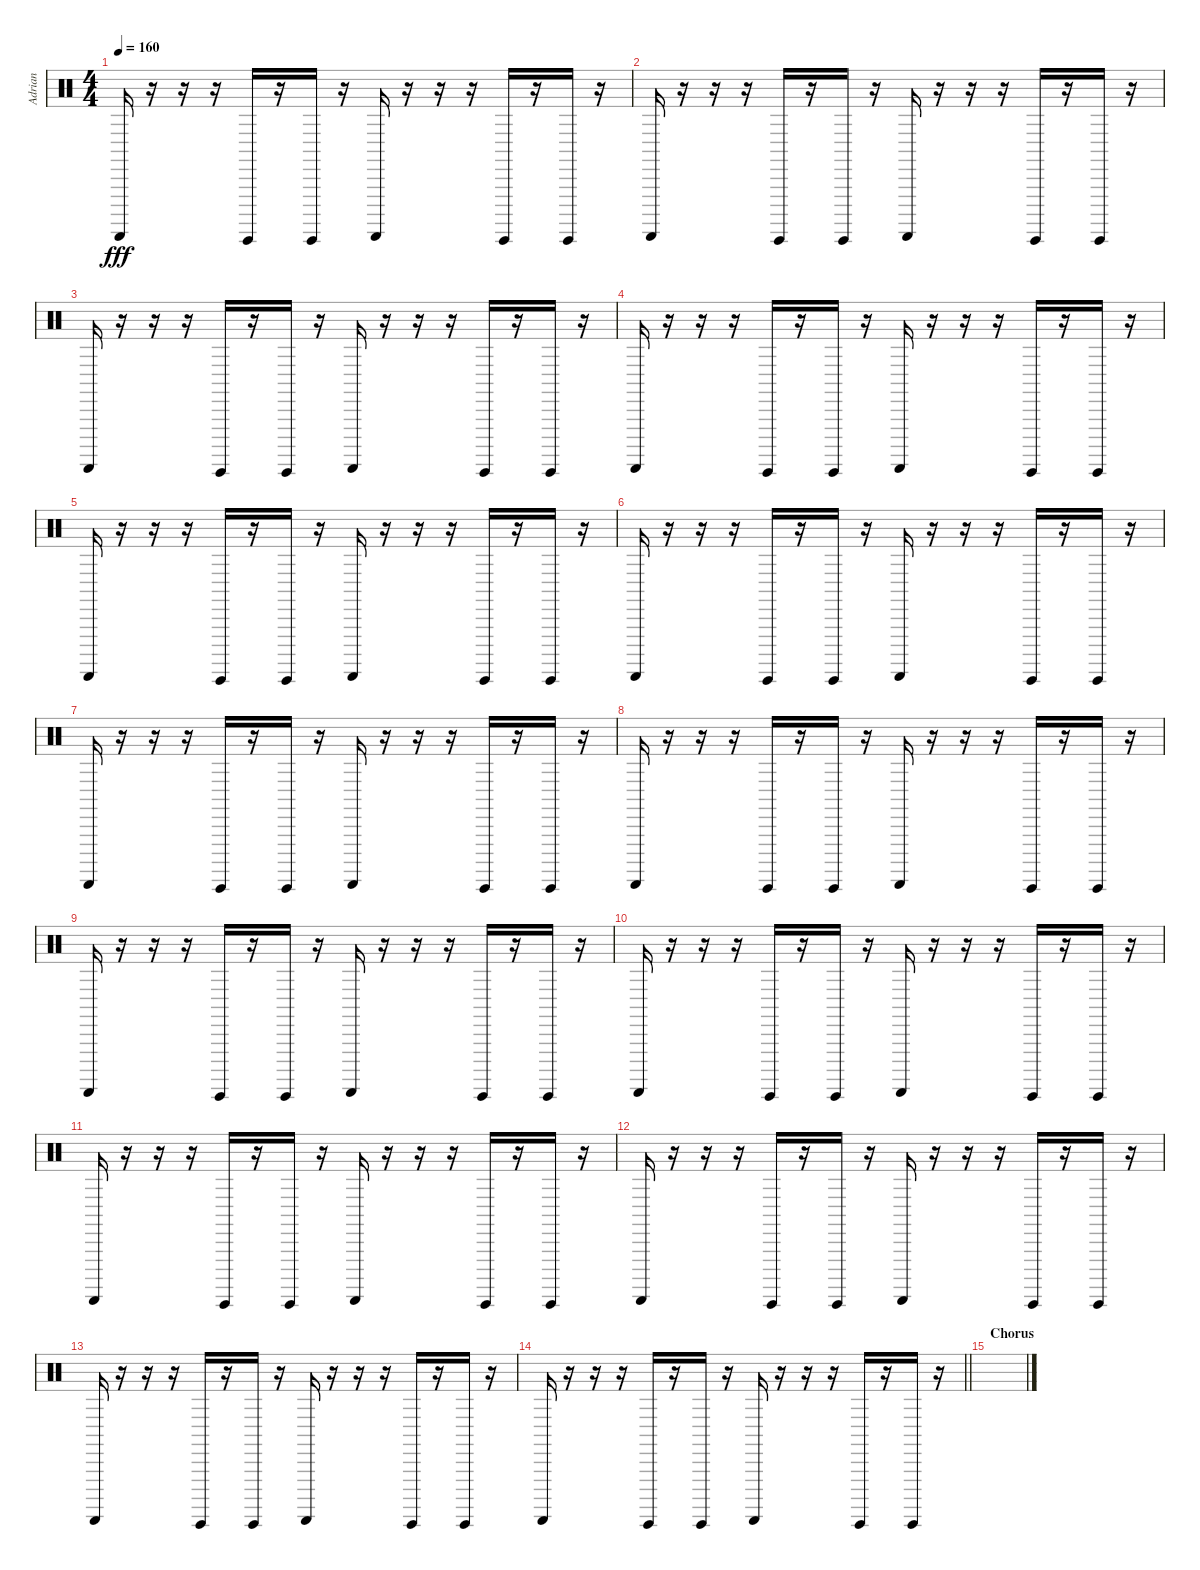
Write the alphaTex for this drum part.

\track ("Adrian" "Adrian") {instrument percussion}
\staff {score}
\articulation defaults
\ts (4 4)
\tempo 160
\clef neutral
\ks c "Guiro (scrap-return)".16{dy fff}
r.16 r.16 r.16 "Guiro (hit)".16 r.16 "Guiro (hit)".16 r.16 "Guiro (scrap-return)".16 r.16 r.16 r.16 "Guiro (hit)".16 r.16 "Guiro (hit)".16 r.16 |
"Guiro (scrap-return)".16 r.16 r.16 r.16 "Guiro (hit)".16 r.16 "Guiro (hit)".16 r.16 "Guiro (scrap-return)".16 r.16 r.16 r.16 "Guiro (hit)".16 r.16 "Guiro (hit)".16 r.16 |
"Guiro (scrap-return)".16 r.16 r.16 r.16 "Guiro (hit)".16 r.16 "Guiro (hit)".16 r.16 "Guiro (scrap-return)".16 r.16 r.16 r.16 "Guiro (hit)".16 r.16 "Guiro (hit)".16 r.16 |
"Guiro (scrap-return)".16 r.16 r.16 r.16 "Guiro (hit)".16 r.16 "Guiro (hit)".16 r.16 "Guiro (scrap-return)".16 r.16 r.16 r.16 "Guiro (hit)".16 r.16 "Guiro (hit)".16 r.16 |
"Guiro (scrap-return)".16 r.16 r.16 r.16 "Guiro (hit)".16 r.16 "Guiro (hit)".16 r.16 "Guiro (scrap-return)".16 r.16 r.16 r.16 "Guiro (hit)".16 r.16 "Guiro (hit)".16 r.16 |
"Guiro (scrap-return)".16 r.16 r.16 r.16 "Guiro (hit)".16 r.16 "Guiro (hit)".16 r.16 "Guiro (scrap-return)".16 r.16 r.16 r.16 "Guiro (hit)".16 r.16 "Guiro (hit)".16 r.16 |
"Guiro (scrap-return)".16 r.16 r.16 r.16 "Guiro (hit)".16 r.16 "Guiro (hit)".16 r.16 "Guiro (scrap-return)".16 r.16 r.16 r.16 "Guiro (hit)".16 r.16 "Guiro (hit)".16 r.16 |
"Guiro (scrap-return)".16 r.16 r.16 r.16 "Guiro (hit)".16 r.16 "Guiro (hit)".16 r.16 "Guiro (scrap-return)".16 r.16 r.16 r.16 "Guiro (hit)".16 r.16 "Guiro (hit)".16 r.16 |
"Guiro (scrap-return)".16 r.16 r.16 r.16 "Guiro (hit)".16 r.16 "Guiro (hit)".16 r.16 "Guiro (scrap-return)".16 r.16 r.16 r.16 "Guiro (hit)".16 r.16 "Guiro (hit)".16 r.16 |
"Guiro (scrap-return)".16 r.16 r.16 r.16 "Guiro (hit)".16 r.16 "Guiro (hit)".16 r.16 "Guiro (scrap-return)".16 r.16 r.16 r.16 "Guiro (hit)".16 r.16 "Guiro (hit)".16 r.16 |
"Guiro (scrap-return)".16 r.16 r.16 r.16 "Guiro (hit)".16 r.16 "Guiro (hit)".16 r.16 "Guiro (scrap-return)".16 r.16 r.16 r.16 "Guiro (hit)".16 r.16 "Guiro (hit)".16 r.16 |
"Guiro (scrap-return)".16 r.16 r.16 r.16 "Guiro (hit)".16 r.16 "Guiro (hit)".16 r.16 "Guiro (scrap-return)".16 r.16 r.16 r.16 "Guiro (hit)".16 r.16 "Guiro (hit)".16 r.16 |
"Guiro (scrap-return)".16 r.16 r.16 r.16 "Guiro (hit)".16 r.16 "Guiro (hit)".16 r.16 "Guiro (scrap-return)".16 r.16 r.16 r.16 "Guiro (hit)".16 r.16 "Guiro (hit)".16 r.16 |
\barLineRight lightlight "Guiro (scrap-return)".16
r.16 r.16 r.16 "Guiro (hit)".16 r.16 "Guiro (hit)".16 r.16 "Guiro (scrap-return)".16 r.16 r.16 r.16 "Guiro (hit)".16 r.16 "Guiro (hit)".16 r.16 |
\section ("" "Chorus")
